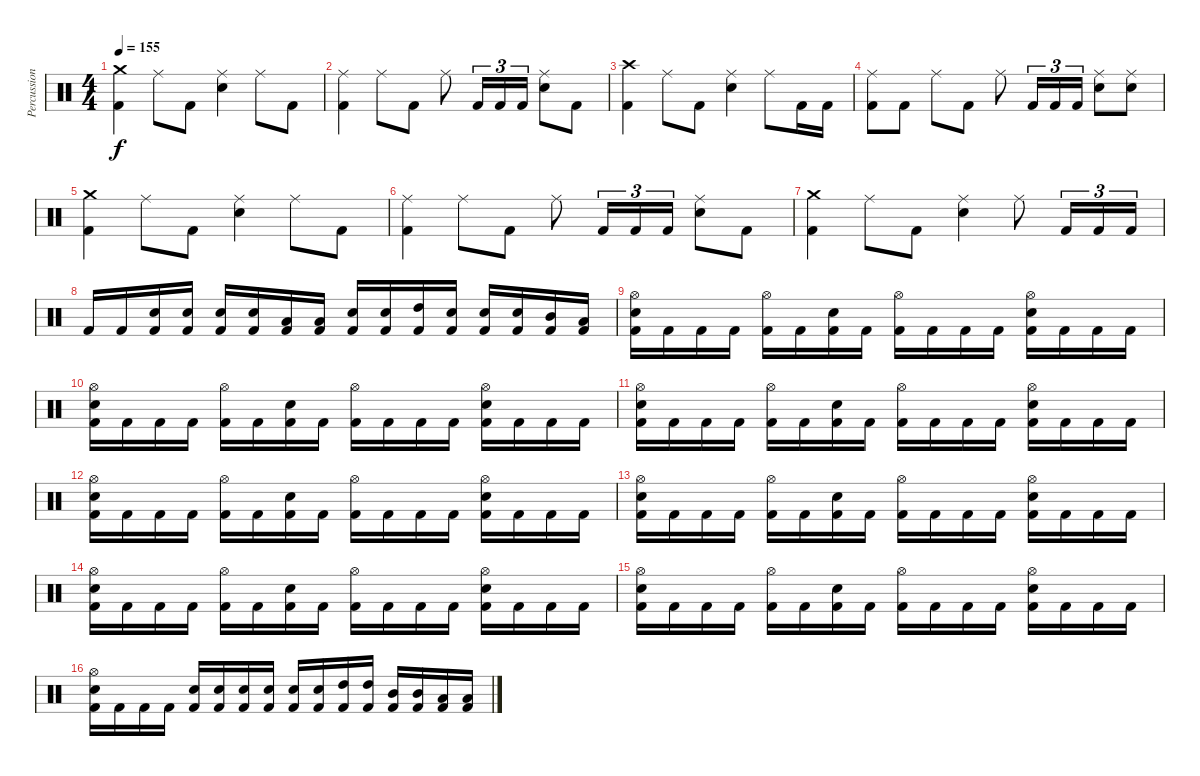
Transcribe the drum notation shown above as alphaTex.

\track ("Percussion" "Percussion") {instrument percussion}
\staff {score}
\articulation defaults
\ts (4 4)
\tempo 155
\clef neutral
\ks c
("Crash medium (hit)" "Kick (hit) 2").4{dy f} "Ride (middle)".8 "Kick (hit) 2".8 ("Ride (middle)" "Electric Snare (hit)").4 "Ride (middle)".8 "Kick (hit) 2".8 |
("Ride (middle)" "Kick (hit) 2").4 "Ride (middle)".8 "Kick (hit) 2".8 "Ride (middle)".8 "Kick (hit) 2".16{tu (3 2)} "Kick (hit) 2".16{tu (3 2)} "Kick (hit) 2".16{tu (3 2)} ("Ride (middle)" "Electric Snare (hit)").8 "Kick (hit) 2".8 |
("Crash high (hit)" "Kick (hit) 2").4 "Ride (middle)".8 "Kick (hit) 2".8 ("Ride (middle)" "Electric Snare (hit)").4 "Ride (middle)".8 "Kick (hit) 2".16 "Kick (hit) 2".16 |
("Ride (middle)" "Kick (hit) 2").8 "Kick (hit) 2".8 "Ride (middle)".8 "Kick (hit) 2".8 "Ride (middle)".8 "Kick (hit) 2".16{tu (3 2)} "Kick (hit) 2".16{tu (3 2)} "Kick (hit) 2".16{tu (3 2)} ("Ride (middle)" "Electric Snare (hit)").8 ("Ride (middle)" "Electric Snare (hit)").8 |
("Crash medium (hit)" "Kick (hit) 2").4 "Ride (middle)".8 "Kick (hit) 2".8 ("Ride (middle)" "Electric Snare (hit)").4 "Ride (middle)".8 "Kick (hit) 2".8 |
("Ride (middle)" "Kick (hit) 2").4 "Ride (middle)".8 "Kick (hit) 2".8 "Ride (middle)".8 "Kick (hit) 2".16{tu (3 2)} "Kick (hit) 2".16{tu (3 2)} "Kick (hit) 2".16{tu (3 2)} ("Ride (middle)" "Electric Snare (hit)").8 "Kick (hit) 2".8 |
("Crash medium (hit)" "Kick (hit) 2").4 "Ride (middle)".8 "Kick (hit) 2".8 ("Ride (middle)" "Electric Snare (hit)").4 "Ride (middle)".8 "Kick (hit) 2".16{tu (3 2)} "Kick (hit) 2".16{tu (3 2)} "Kick (hit) 2".16{tu (3 2)} |
"Kick (hit) 2".16 "Kick (hit) 2".16 ("Electric Snare (hit)" "Kick (hit) 2").16 ("Electric Snare (hit)" "Kick (hit) 2").16 ("Electric Snare (hit)" "Kick (hit) 2").16 ("Electric Snare (hit)" "Kick (hit) 2").16 ("Low Tom (hit)" "Kick (hit) 2").16 ("Low Tom (hit)" "Kick (hit) 2").16 ("Electric Snare (hit)" "Kick (hit) 2").16 ("Electric Snare (hit)" "Kick (hit) 2").16 ("High Tom (hit)" "Kick (hit) 2").16 ("Electric Snare (hit)" "Kick (hit) 2").16 ("Electric Snare (hit)" "Kick (hit) 2").16 ("Electric Snare (hit)" "Kick (hit) 2").16 ("Mid Tom (hit)" "Kick (hit) 2").16 ("Low Tom (hit)" "Kick (hit) 2").16 |
("Hi-Hat (open)" "Electric Snare (hit)" "Kick (hit) 2").16 "Kick (hit) 2".16 "Kick (hit) 2".16 "Kick (hit) 2".16 ("Hi-Hat (open)" "Kick (hit) 2").16 "Kick (hit) 2".16 ("Electric Snare (hit)" "Kick (hit) 2").16 "Kick (hit) 2".16 ("Hi-Hat (open)" "Kick (hit) 2").16 "Kick (hit) 2".16 "Kick (hit) 2".16 "Kick (hit) 2".16 ("Hi-Hat (open)" "Electric Snare (hit)" "Kick (hit) 2").16 "Kick (hit) 2".16 "Kick (hit) 2".16 "Kick (hit) 2".16 |
("Hi-Hat (open)" "Electric Snare (hit)" "Kick (hit) 2").16 "Kick (hit) 2".16 "Kick (hit) 2".16 "Kick (hit) 2".16 ("Hi-Hat (open)" "Kick (hit) 2").16 "Kick (hit) 2".16 ("Electric Snare (hit)" "Kick (hit) 2").16 "Kick (hit) 2".16 ("Hi-Hat (open)" "Kick (hit) 2").16 "Kick (hit) 2".16 "Kick (hit) 2".16 "Kick (hit) 2".16 ("Hi-Hat (open)" "Electric Snare (hit)" "Kick (hit) 2").16 "Kick (hit) 2".16 "Kick (hit) 2".16 "Kick (hit) 2".16 |
("Hi-Hat (open)" "Electric Snare (hit)" "Kick (hit) 2").16 "Kick (hit) 2".16 "Kick (hit) 2".16 "Kick (hit) 2".16 ("Hi-Hat (open)" "Kick (hit) 2").16 "Kick (hit) 2".16 ("Electric Snare (hit)" "Kick (hit) 2").16 "Kick (hit) 2".16 ("Hi-Hat (open)" "Kick (hit) 2").16 "Kick (hit) 2".16 "Kick (hit) 2".16 "Kick (hit) 2".16 ("Hi-Hat (open)" "Electric Snare (hit)" "Kick (hit) 2").16 "Kick (hit) 2".16 "Kick (hit) 2".16 "Kick (hit) 2".16 |
("Hi-Hat (open)" "Electric Snare (hit)" "Kick (hit) 2").16 "Kick (hit) 2".16 "Kick (hit) 2".16 "Kick (hit) 2".16 ("Hi-Hat (open)" "Kick (hit) 2").16 "Kick (hit) 2".16 ("Electric Snare (hit)" "Kick (hit) 2").16 "Kick (hit) 2".16 ("Hi-Hat (open)" "Kick (hit) 2").16 "Kick (hit) 2".16 "Kick (hit) 2".16 "Kick (hit) 2".16 ("Hi-Hat (open)" "Electric Snare (hit)" "Kick (hit) 2").16 "Kick (hit) 2".16 "Kick (hit) 2".16 "Kick (hit) 2".16 |
("Hi-Hat (open)" "Electric Snare (hit)" "Kick (hit) 2").16 "Kick (hit) 2".16 "Kick (hit) 2".16 "Kick (hit) 2".16 ("Hi-Hat (open)" "Kick (hit) 2").16 "Kick (hit) 2".16 ("Electric Snare (hit)" "Kick (hit) 2").16 "Kick (hit) 2".16 ("Hi-Hat (open)" "Kick (hit) 2").16 "Kick (hit) 2".16 "Kick (hit) 2".16 "Kick (hit) 2".16 ("Hi-Hat (open)" "Electric Snare (hit)" "Kick (hit) 2").16 "Kick (hit) 2".16 "Kick (hit) 2".16 "Kick (hit) 2".16 |
("Hi-Hat (open)" "Electric Snare (hit)" "Kick (hit) 2").16 "Kick (hit) 2".16 "Kick (hit) 2".16 "Kick (hit) 2".16 ("Hi-Hat (open)" "Kick (hit) 2").16 "Kick (hit) 2".16 ("Electric Snare (hit)" "Kick (hit) 2").16 "Kick (hit) 2".16 ("Hi-Hat (open)" "Kick (hit) 2").16 "Kick (hit) 2".16 "Kick (hit) 2".16 "Kick (hit) 2".16 ("Hi-Hat (open)" "Electric Snare (hit)" "Kick (hit) 2").16 "Kick (hit) 2".16 "Kick (hit) 2".16 "Kick (hit) 2".16 |
("Hi-Hat (open)" "Electric Snare (hit)" "Kick (hit) 2").16 "Kick (hit) 2".16 "Kick (hit) 2".16 "Kick (hit) 2".16 ("Hi-Hat (open)" "Kick (hit) 2").16 "Kick (hit) 2".16 ("Electric Snare (hit)" "Kick (hit) 2").16 "Kick (hit) 2".16 ("Hi-Hat (open)" "Kick (hit) 2").16 "Kick (hit) 2".16 "Kick (hit) 2".16 "Kick (hit) 2".16 ("Hi-Hat (open)" "Electric Snare (hit)" "Kick (hit) 2").16 "Kick (hit) 2".16 "Kick (hit) 2".16 "Kick (hit) 2".16 |
("Hi-Hat (open)" "Electric Snare (hit)" "Kick (hit) 2").16 "Kick (hit) 2".16 "Kick (hit) 2".16 "Kick (hit) 2".16 ("Electric Snare (hit)" "Kick (hit) 2").16 ("Electric Snare (hit)" "Kick (hit) 2").16 ("Electric Snare (hit)" "Kick (hit) 2").16 ("Electric Snare (hit)" "Kick (hit) 2").16 ("Electric Snare (hit)" "Kick (hit) 2").16 ("Electric Snare (hit)" "Kick (hit) 2").16 ("High Tom (hit)" "Kick (hit) 2").16 ("High Tom (hit)" "Kick (hit) 2").16 ("Mid Tom (hit)" "Kick (hit) 2").16 ("Mid Tom (hit)" "Kick (hit) 2").16 ("Low Tom (hit)" "Kick (hit) 2").16 ("Low Tom (hit)" "Kick (hit) 2").16
